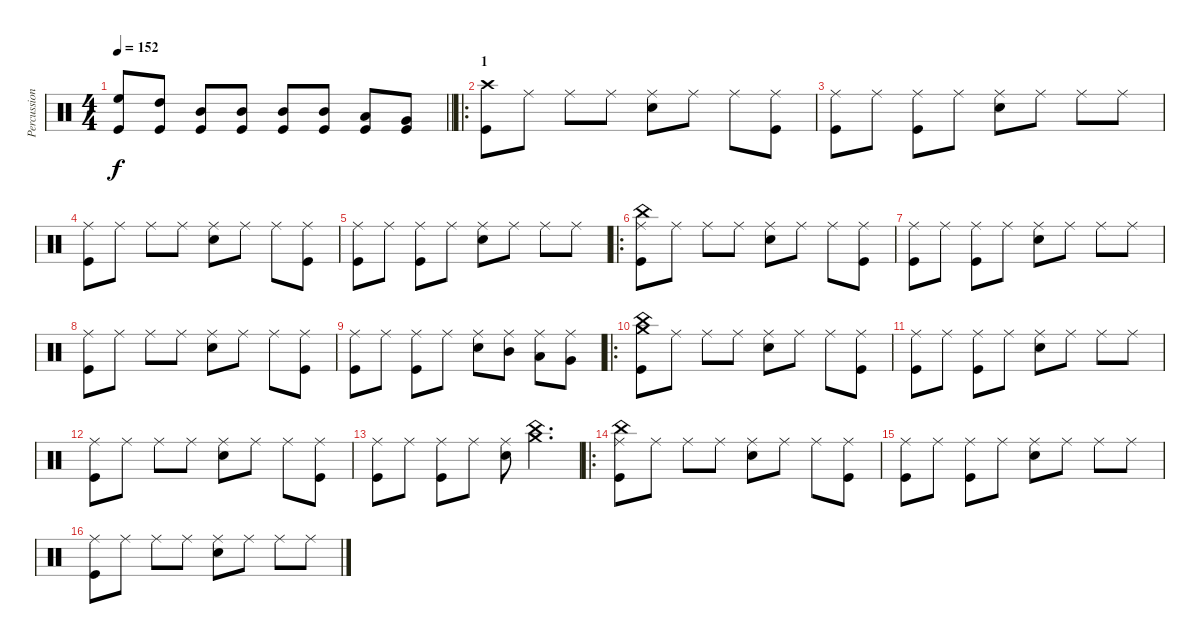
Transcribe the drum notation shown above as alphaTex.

\track ("Percussion" "Percussion") {instrument percussion}
\staff {score}
\articulation defaults
\ts (4 4)
\tempo 152
\clef neutral
\barLineRight lightlight
\ks c
("High Floor Tom (hit)" "Kick (hit)").8{dy f} ("High Tom (hit)" "Kick (hit)").8 ("Mid Tom (hit)" "Kick (hit)").8 ("Mid Tom (hit)" "Kick (hit)").8 ("Mid Tom (hit)" "Kick (hit)").8 ("Mid Tom (hit)" "Kick (hit)").8 ("Low Tom (hit)" "Kick (hit)").8 ("Very Low Tom (hit)" "Kick (hit)").8 |
\ro
\section ("" "1")
("Crash high (hit)" "Kick (hit)").8 "Ride (middle)".8 "Ride (middle)".8 "Ride (middle)".8 ("Ride (middle)" "Snare (hit) 2").8 "Ride (middle)".8 "Ride (middle)".8 ("Ride (middle)" "Kick (hit)").8 |
("Ride (middle)" "Kick (hit)").8 "Ride (middle)".8 ("Ride (middle)" "Kick (hit)").8 "Ride (middle)".8 ("Ride (middle)" "Snare (hit) 2").8 "Ride (middle)".8 "Ride (middle)".8 "Ride (middle)".8 |
("Ride (middle)" "Kick (hit)").8 "Ride (middle)".8 "Ride (middle)".8 "Ride (middle)".8 ("Ride (middle)" "Snare (hit) 2").8 "Ride (middle)".8 "Ride (middle)".8 ("Ride (middle)" "Kick (hit)").8 |
("Ride (middle)" "Kick (hit)").8 "Ride (middle)".8 ("Ride (middle)" "Kick (hit)").8 "Ride (middle)".8 ("Ride (middle)" "Snare (hit) 2").8 "Ride (middle)".8 "Ride (middle)".8 "Ride (middle)".8 |
\ro
("China (hit)" "Ride (middle)" "Kick (hit)").8 "Ride (middle)".8 "Ride (middle)".8 "Ride (middle)".8 ("Ride (middle)" "Snare (hit) 2").8 "Ride (middle)".8 "Ride (middle)".8 ("Ride (middle)" "Kick (hit)").8 |
("Ride (middle)" "Kick (hit)").8 "Ride (middle)".8 ("Ride (middle)" "Kick (hit)").8 "Ride (middle)".8 ("Ride (middle)" "Snare (hit) 2").8 "Ride (middle)".8 "Ride (middle)".8 "Ride (middle)".8 |
("Ride (middle)" "Kick (hit)").8 "Ride (middle)".8 "Ride (middle)".8 "Ride (middle)".8 ("Ride (middle)" "Snare (hit) 2").8 "Ride (middle)".8 "Ride (middle)".8 ("Ride (middle)" "Kick (hit)").8 |
("Ride (middle)" "Kick (hit)").8 "Ride (middle)".8 ("Ride (middle)" "Kick (hit)").8 "Ride (middle)".8 ("Ride (middle)" "Snare (hit) 2").8 ("Ride (middle)" "Mid Tom (hit)").8 ("Ride (middle)" "Low Tom (hit)").8 ("Ride (middle)" "Very Low Tom (hit)").8 |
\ro
("China (hit)" "Crash medium (hit)" "Kick (hit)").8 "Ride (middle)".8 "Ride (middle)".8 "Ride (middle)".8 ("Ride (middle)" "Snare (hit) 2").8 "Ride (middle)".8 "Ride (middle)".8 ("Ride (middle)" "Kick (hit)").8 |
("Ride (middle)" "Kick (hit)").8 "Ride (middle)".8 ("Ride (middle)" "Kick (hit)").8 "Ride (middle)".8 ("Ride (middle)" "Snare (hit) 2").8 "Ride (middle)".8 "Ride (middle)".8 "Ride (middle)".8 |
("Ride (middle)" "Kick (hit)").8 "Ride (middle)".8 "Ride (middle)".8 "Ride (middle)".8 ("Ride (middle)" "Snare (hit) 2").8 "Ride (middle)".8 "Ride (middle)".8 ("Ride (middle)" "Kick (hit)").8 |
("Ride (middle)" "Kick (hit)").8 "Ride (middle)".8 ("Ride (middle)" "Kick (hit)").8 "Ride (middle)".8 ("Ride (middle)" "Snare (hit) 2").8 ("China (hit)" "Crash medium (hit)").4{d} |
\ro
("China (hit)" "Ride (middle)" "Kick (hit)").8 "Ride (middle)".8 "Ride (middle)".8 "Ride (middle)".8 ("Ride (middle)" "Snare (hit) 2").8 "Ride (middle)".8 "Ride (middle)".8 ("Ride (middle)" "Kick (hit)").8 |
("Ride (middle)" "Kick (hit)").8 "Ride (middle)".8 ("Ride (middle)" "Kick (hit)").8 "Ride (middle)".8 ("Ride (middle)" "Snare (hit) 2").8 "Ride (middle)".8 "Ride (middle)".8 "Ride (middle)".8 |
("Ride (middle)" "Kick (hit)").8 "Ride (middle)".8 "Ride (middle)".8 "Ride (middle)".8 ("Ride (middle)" "Snare (hit) 2").8 "Ride (middle)".8 "Ride (middle)".8 "Ride (middle)".8
